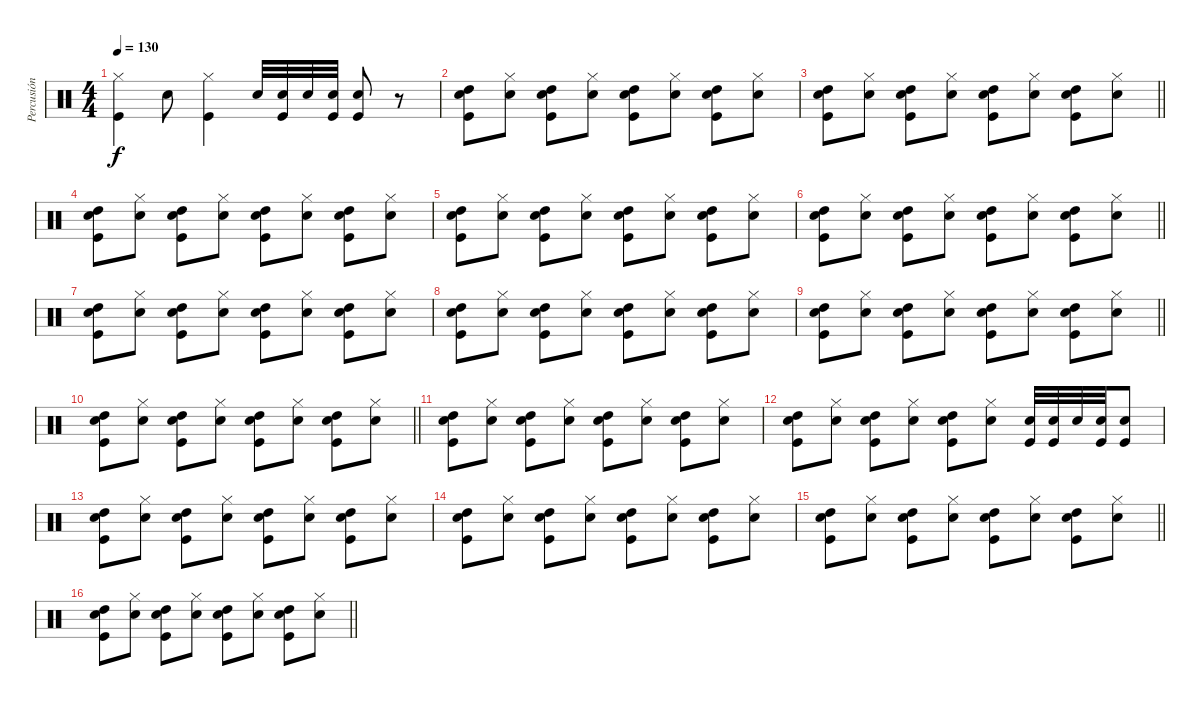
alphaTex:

\track ("Percusión" "Percusión") {instrument percussion}
\staff {score}
\articulation defaults
\ts (4 4)
\section ("" "")
\tempo 130
\clef neutral
\ks c
("Hi-Hat (closed)" "Kick (hit)").4{dy f} "Snare (hit) 2".8 ("Hi-Hat (closed)" "Kick (hit)").4 "Snare (hit) 2".32 ("Snare (hit) 2" "Kick (hit)").32 "Snare (hit) 2".32 ("Snare (hit) 2" "Kick (hit)").32 ("Snare (hit) 2" "Kick (hit)").8 r.8 |
("High Tom (hit)" "Snare (hit) 2" "Kick (hit)").8 ("Hi-Hat (closed)" "Snare (hit) 2").8 ("High Tom (hit)" "Snare (hit) 2" "Kick (hit)").8 ("Hi-Hat (closed)" "Snare (hit) 2").8 ("High Tom (hit)" "Snare (hit) 2" "Kick (hit)").8 ("Hi-Hat (closed)" "Snare (hit) 2").8 ("High Tom (hit)" "Snare (hit) 2" "Kick (hit)").8 ("Hi-Hat (closed)" "Snare (hit) 2").8 |
\barLineRight lightlight
("High Tom (hit)" "Snare (hit) 2" "Kick (hit)").8 ("Hi-Hat (closed)" "Snare (hit) 2").8 ("High Tom (hit)" "Snare (hit) 2" "Kick (hit)").8 ("Hi-Hat (closed)" "Snare (hit) 2").8 ("High Tom (hit)" "Snare (hit) 2" "Kick (hit)").8 ("Hi-Hat (closed)" "Snare (hit) 2").8 ("High Tom (hit)" "Snare (hit) 2" "Kick (hit)").8 ("Hi-Hat (closed)" "Snare (hit) 2").8 |
("High Tom (hit)" "Snare (hit) 2" "Kick (hit)").8 ("Hi-Hat (closed)" "Snare (hit) 2").8 ("High Tom (hit)" "Snare (hit) 2" "Kick (hit)").8 ("Hi-Hat (closed)" "Snare (hit) 2").8 ("High Tom (hit)" "Snare (hit) 2" "Kick (hit)").8 ("Hi-Hat (closed)" "Snare (hit) 2").8 ("High Tom (hit)" "Snare (hit) 2" "Kick (hit)").8 ("Hi-Hat (closed)" "Snare (hit) 2").8 |
("High Tom (hit)" "Snare (hit) 2" "Kick (hit)").8 ("Hi-Hat (closed)" "Snare (hit) 2").8 ("High Tom (hit)" "Snare (hit) 2" "Kick (hit)").8 ("Hi-Hat (closed)" "Snare (hit) 2").8 ("High Tom (hit)" "Snare (hit) 2" "Kick (hit)").8 ("Hi-Hat (closed)" "Snare (hit) 2").8 ("High Tom (hit)" "Snare (hit) 2" "Kick (hit)").8 ("Hi-Hat (closed)" "Snare (hit) 2").8 |
\barLineRight lightlight
("High Tom (hit)" "Snare (hit) 2" "Kick (hit)").8 ("Hi-Hat (closed)" "Snare (hit) 2").8 ("High Tom (hit)" "Snare (hit) 2" "Kick (hit)").8 ("Hi-Hat (closed)" "Snare (hit) 2").8 ("High Tom (hit)" "Snare (hit) 2" "Kick (hit)").8 ("Hi-Hat (closed)" "Snare (hit) 2").8 ("High Tom (hit)" "Snare (hit) 2" "Kick (hit)").8 ("Hi-Hat (closed)" "Snare (hit) 2").8 |
("High Tom (hit)" "Snare (hit) 2" "Kick (hit)").8 ("Hi-Hat (closed)" "Snare (hit) 2").8 ("High Tom (hit)" "Snare (hit) 2" "Kick (hit)").8 ("Hi-Hat (closed)" "Snare (hit) 2").8 ("High Tom (hit)" "Snare (hit) 2" "Kick (hit)").8 ("Hi-Hat (closed)" "Snare (hit) 2").8 ("High Tom (hit)" "Snare (hit) 2" "Kick (hit)").8 ("Hi-Hat (closed)" "Snare (hit) 2").8 |
("High Tom (hit)" "Snare (hit) 2" "Kick (hit)").8 ("Hi-Hat (closed)" "Snare (hit) 2").8 ("High Tom (hit)" "Snare (hit) 2" "Kick (hit)").8 ("Hi-Hat (closed)" "Snare (hit) 2").8 ("High Tom (hit)" "Snare (hit) 2" "Kick (hit)").8 ("Hi-Hat (closed)" "Snare (hit) 2").8 ("High Tom (hit)" "Snare (hit) 2" "Kick (hit)").8 ("Hi-Hat (closed)" "Snare (hit) 2").8 |
\barLineRight lightlight
("High Tom (hit)" "Snare (hit) 2" "Kick (hit)").8 ("Hi-Hat (closed)" "Snare (hit) 2").8 ("High Tom (hit)" "Snare (hit) 2" "Kick (hit)").8 ("Hi-Hat (closed)" "Snare (hit) 2").8 ("High Tom (hit)" "Snare (hit) 2" "Kick (hit)").8 ("Hi-Hat (closed)" "Snare (hit) 2").8 ("High Tom (hit)" "Snare (hit) 2" "Kick (hit)").8 ("Hi-Hat (closed)" "Snare (hit) 2").8 |
\barLineRight lightlight
("High Tom (hit)" "Snare (hit) 2" "Kick (hit)").8 ("Hi-Hat (closed)" "Snare (hit) 2").8 ("High Tom (hit)" "Snare (hit) 2" "Kick (hit)").8 ("Hi-Hat (closed)" "Snare (hit) 2").8 ("High Tom (hit)" "Snare (hit) 2" "Kick (hit)").8 ("Hi-Hat (closed)" "Snare (hit) 2").8 ("High Tom (hit)" "Snare (hit) 2" "Kick (hit)").8 ("Hi-Hat (closed)" "Snare (hit) 2").8 |
\section ("" "")
("High Tom (hit)" "Snare (hit) 2" "Kick (hit)").8 ("Hi-Hat (closed)" "Snare (hit) 2").8 ("High Tom (hit)" "Snare (hit) 2" "Kick (hit)").8 ("Hi-Hat (closed)" "Snare (hit) 2").8 ("High Tom (hit)" "Snare (hit) 2" "Kick (hit)").8 ("Hi-Hat (closed)" "Snare (hit) 2").8 ("High Tom (hit)" "Snare (hit) 2" "Kick (hit)").8 ("Hi-Hat (closed)" "Snare (hit) 2").8 |
("High Tom (hit)" "Snare (hit) 2" "Kick (hit)").8 ("Hi-Hat (closed)" "Snare (hit) 2").8 ("High Tom (hit)" "Snare (hit) 2" "Kick (hit)").8 ("Hi-Hat (closed)" "Snare (hit) 2").8 ("High Tom (hit)" "Snare (hit) 2" "Kick (hit)").8 ("Hi-Hat (closed)" "Snare (hit) 2").8 ("Snare (hit) 2" "Kick (hit)").32 ("Snare (hit) 2" "Kick (hit)").32 "Snare (hit) 2".32 ("Snare (hit) 2" "Kick (hit)").32 ("Snare (hit) 2" "Kick (hit)").8 |
("High Tom (hit)" "Snare (hit) 2" "Kick (hit)").8 ("Hi-Hat (closed)" "Snare (hit) 2").8 ("High Tom (hit)" "Snare (hit) 2" "Kick (hit)").8 ("Hi-Hat (closed)" "Snare (hit) 2").8 ("High Tom (hit)" "Snare (hit) 2" "Kick (hit)").8 ("Hi-Hat (closed)" "Snare (hit) 2").8 ("High Tom (hit)" "Snare (hit) 2" "Kick (hit)").8 ("Hi-Hat (closed)" "Snare (hit) 2").8 |
("High Tom (hit)" "Snare (hit) 2" "Kick (hit)").8 ("Hi-Hat (closed)" "Snare (hit) 2").8 ("High Tom (hit)" "Snare (hit) 2" "Kick (hit)").8 ("Hi-Hat (closed)" "Snare (hit) 2").8 ("High Tom (hit)" "Snare (hit) 2" "Kick (hit)").8 ("Hi-Hat (closed)" "Snare (hit) 2").8 ("High Tom (hit)" "Snare (hit) 2" "Kick (hit)").8 ("Hi-Hat (closed)" "Snare (hit) 2").8 |
\barLineRight lightlight
("High Tom (hit)" "Snare (hit) 2" "Kick (hit)").8 ("Hi-Hat (closed)" "Snare (hit) 2").8 ("High Tom (hit)" "Snare (hit) 2" "Kick (hit)").8 ("Hi-Hat (closed)" "Snare (hit) 2").8 ("High Tom (hit)" "Snare (hit) 2" "Kick (hit)").8 ("Hi-Hat (closed)" "Snare (hit) 2").8 ("High Tom (hit)" "Snare (hit) 2" "Kick (hit)").8 ("Hi-Hat (closed)" "Snare (hit) 2").8 |
\barLineRight lightlight
("High Tom (hit)" "Snare (hit) 2" "Kick (hit)").8 ("Hi-Hat (closed)" "Snare (hit) 2").8 ("High Tom (hit)" "Snare (hit) 2" "Kick (hit)").8 ("Hi-Hat (closed)" "Snare (hit) 2").8 ("High Tom (hit)" "Snare (hit) 2" "Kick (hit)").8 ("Hi-Hat (closed)" "Snare (hit) 2").8 ("High Tom (hit)" "Snare (hit) 2" "Kick (hit)").8 ("Hi-Hat (closed)" "Snare (hit) 2").8
